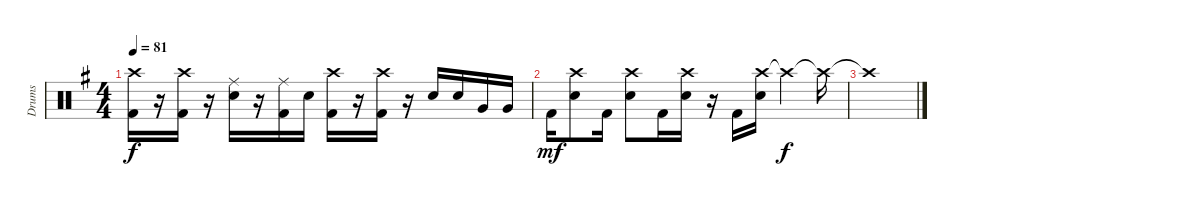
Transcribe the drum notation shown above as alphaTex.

\track ("Drums" "Drums") {instrument percussion}
\staff {score}
\articulation defaults
\ts (4 4)
\tempo 81
\clef neutral
\ks g
("Crash high (hit)" "Kick (hit) 2").16{dy f} r.16 ("Crash high (hit)" "Kick (hit) 2").16 r.16 ("Ride (middle)" "Snare (hit) 2").16 r.16 ("Ride (middle)" "Kick (hit) 2").16 "Snare (hit) 2".16 ("Crash high (hit)" "Kick (hit) 2").16 r.16 ("Crash high (hit)" "Kick (hit) 2").16 r.16 "Snare (hit) 2".16 "Snare (hit) 2".16 "Very Low Tom (hit)".16 "Very Low Tom (hit)".16 |
"Kick (hit) 2".16{dy mf} ("Crash high (hit)" "Snare (hit) 2").8 "Kick (hit) 2".16 ("Crash high (hit)" "Snare (hit) 2").8 "Kick (hit) 2".16 ("Crash high (hit)" "Snare (hit) 2").16 r.16 "Kick (hit) 2".16 ("Crash high (hit)" "Snare (hit) 2").16 "Crash high (hit)"{t}.4{dy f} "Crash high (hit)"{t}.16 |
"Crash high (hit)"{t}.1
